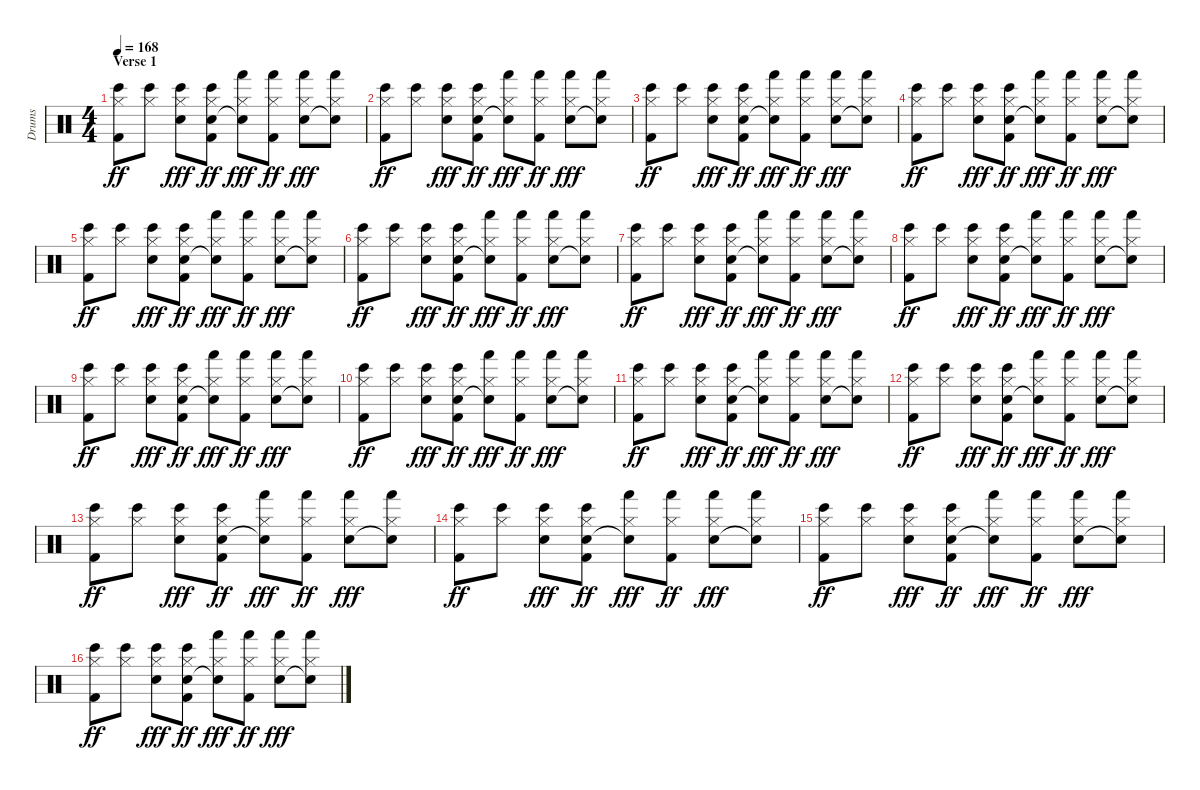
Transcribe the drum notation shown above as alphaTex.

\track ("Drums" "Drums") {instrument percussion}
\staff {score}
\articulation defaults
\ts (4 4)
\section ("" "Verse 1")
\tempo 168
\clef neutral
\ks c
("Bongo High (hit)" "Hi-Hat (closed)" "Kick (hit) 2").8{dy ff} ("Bongo High (hit)" "Hi-Hat (closed)").8 ("Bongo High (hit)" "Hi-Hat (closed)" "Electric Snare (hit)").8{dy fff} ("Bongo High (hit)" "Hi-Hat (closed)" "Electric Snare (hit)" "Kick (hit) 2").8{dy ff} ("Hand (hit)" "Hi-Hat (closed)" "Electric Snare (hit)"{t}).8{dy fff} ("Hand (hit)" "Hi-Hat (closed)" "Kick (hit) 2").8{dy ff} ("Hand (hit)" "Hi-Hat (closed)" "Electric Snare (hit)").8{dy fff} ("Hand (hit)" "Hi-Hat (closed)" "Snare (hit)"{t}).8 |
("Bongo High (hit)" "Hi-Hat (closed)" "Kick (hit) 2").8{dy ff} ("Bongo High (hit)" "Hi-Hat (closed)").8 ("Bongo High (hit)" "Hi-Hat (closed)" "Electric Snare (hit)").8{dy fff} ("Bongo High (hit)" "Hi-Hat (closed)" "Electric Snare (hit)" "Kick (hit) 2").8{dy ff} ("Hand (hit)" "Hi-Hat (closed)" "Electric Snare (hit)"{t}).8{dy fff} ("Hand (hit)" "Hi-Hat (closed)" "Kick (hit) 2").8{dy ff} ("Hand (hit)" "Hi-Hat (closed)" "Electric Snare (hit)").8{dy fff} ("Hand (hit)" "Hi-Hat (closed)" "Snare (hit)"{t}).8 |
("Bongo High (hit)" "Hi-Hat (closed)" "Kick (hit) 2").8{dy ff} ("Bongo High (hit)" "Hi-Hat (closed)").8 ("Bongo High (hit)" "Hi-Hat (closed)" "Electric Snare (hit)").8{dy fff} ("Bongo High (hit)" "Hi-Hat (closed)" "Electric Snare (hit)" "Kick (hit) 2").8{dy ff} ("Hand (hit)" "Hi-Hat (closed)" "Electric Snare (hit)"{t}).8{dy fff} ("Hand (hit)" "Hi-Hat (closed)" "Kick (hit) 2").8{dy ff} ("Hand (hit)" "Hi-Hat (closed)" "Electric Snare (hit)").8{dy fff} ("Hand (hit)" "Hi-Hat (closed)" "Snare (hit)"{t}).8 |
("Bongo High (hit)" "Hi-Hat (closed)" "Kick (hit) 2").8{dy ff} ("Bongo High (hit)" "Hi-Hat (closed)").8 ("Bongo High (hit)" "Hi-Hat (closed)" "Electric Snare (hit)").8{dy fff} ("Bongo High (hit)" "Hi-Hat (closed)" "Electric Snare (hit)" "Kick (hit) 2").8{dy ff} ("Hand (hit)" "Hi-Hat (closed)" "Electric Snare (hit)"{t}).8{dy fff} ("Hand (hit)" "Hi-Hat (closed)" "Kick (hit) 2").8{dy ff} ("Hand (hit)" "Hi-Hat (closed)" "Electric Snare (hit)").8{dy fff} ("Hand (hit)" "Hi-Hat (closed)" "Snare (hit)"{t}).8 |
("Bongo High (hit)" "Hi-Hat (closed)" "Kick (hit) 2").8{dy ff} ("Bongo High (hit)" "Hi-Hat (closed)").8 ("Bongo High (hit)" "Hi-Hat (closed)" "Electric Snare (hit)").8{dy fff} ("Bongo High (hit)" "Hi-Hat (closed)" "Electric Snare (hit)" "Kick (hit) 2").8{dy ff} ("Hand (hit)" "Hi-Hat (closed)" "Electric Snare (hit)"{t}).8{dy fff} ("Hand (hit)" "Hi-Hat (closed)" "Kick (hit) 2").8{dy ff} ("Hand (hit)" "Hi-Hat (closed)" "Electric Snare (hit)").8{dy fff} ("Hand (hit)" "Hi-Hat (closed)" "Snare (hit)"{t}).8 |
("Bongo High (hit)" "Hi-Hat (closed)" "Kick (hit) 2").8{dy ff} ("Bongo High (hit)" "Hi-Hat (closed)").8 ("Bongo High (hit)" "Hi-Hat (closed)" "Electric Snare (hit)").8{dy fff} ("Bongo High (hit)" "Hi-Hat (closed)" "Electric Snare (hit)" "Kick (hit) 2").8{dy ff} ("Hand (hit)" "Hi-Hat (closed)" "Electric Snare (hit)"{t}).8{dy fff} ("Hand (hit)" "Hi-Hat (closed)" "Kick (hit) 2").8{dy ff} ("Hand (hit)" "Hi-Hat (closed)" "Electric Snare (hit)").8{dy fff} ("Hand (hit)" "Hi-Hat (closed)" "Snare (hit)"{t}).8 |
("Bongo High (hit)" "Hi-Hat (closed)" "Kick (hit) 2").8{dy ff} ("Bongo High (hit)" "Hi-Hat (closed)").8 ("Bongo High (hit)" "Hi-Hat (closed)" "Electric Snare (hit)").8{dy fff} ("Bongo High (hit)" "Hi-Hat (closed)" "Electric Snare (hit)" "Kick (hit) 2").8{dy ff} ("Hand (hit)" "Hi-Hat (closed)" "Electric Snare (hit)"{t}).8{dy fff} ("Hand (hit)" "Hi-Hat (closed)" "Kick (hit) 2").8{dy ff} ("Hand (hit)" "Hi-Hat (closed)" "Electric Snare (hit)").8{dy fff} ("Hand (hit)" "Hi-Hat (closed)" "Snare (hit)"{t}).8 |
("Bongo High (hit)" "Hi-Hat (closed)" "Kick (hit) 2").8{dy ff} ("Bongo High (hit)" "Hi-Hat (closed)").8 ("Bongo High (hit)" "Hi-Hat (closed)" "Electric Snare (hit)").8{dy fff} ("Bongo High (hit)" "Hi-Hat (closed)" "Electric Snare (hit)" "Kick (hit) 2").8{dy ff} ("Hand (hit)" "Hi-Hat (closed)" "Electric Snare (hit)"{t}).8{dy fff} ("Hand (hit)" "Hi-Hat (closed)" "Kick (hit) 2").8{dy ff} ("Hand (hit)" "Hi-Hat (closed)" "Electric Snare (hit)").8{dy fff} ("Hand (hit)" "Hi-Hat (closed)" "Snare (hit)"{t}).8 |
("Bongo High (hit)" "Hi-Hat (closed)" "Kick (hit) 2").8{dy ff} ("Bongo High (hit)" "Hi-Hat (closed)").8 ("Bongo High (hit)" "Hi-Hat (closed)" "Electric Snare (hit)").8{dy fff} ("Bongo High (hit)" "Hi-Hat (closed)" "Electric Snare (hit)" "Kick (hit) 2").8{dy ff} ("Hand (hit)" "Hi-Hat (closed)" "Electric Snare (hit)"{t}).8{dy fff} ("Hand (hit)" "Hi-Hat (closed)" "Kick (hit) 2").8{dy ff} ("Hand (hit)" "Hi-Hat (closed)" "Electric Snare (hit)").8{dy fff} ("Hand (hit)" "Hi-Hat (closed)" "Snare (hit)"{t}).8 |
("Bongo High (hit)" "Hi-Hat (closed)" "Kick (hit) 2").8{dy ff} ("Bongo High (hit)" "Hi-Hat (closed)").8 ("Bongo High (hit)" "Hi-Hat (closed)" "Electric Snare (hit)").8{dy fff} ("Bongo High (hit)" "Hi-Hat (closed)" "Electric Snare (hit)" "Kick (hit) 2").8{dy ff} ("Hand (hit)" "Hi-Hat (closed)" "Electric Snare (hit)"{t}).8{dy fff} ("Hand (hit)" "Hi-Hat (closed)" "Kick (hit) 2").8{dy ff} ("Hand (hit)" "Hi-Hat (closed)" "Electric Snare (hit)").8{dy fff} ("Hand (hit)" "Hi-Hat (closed)" "Snare (hit)"{t}).8 |
("Bongo High (hit)" "Hi-Hat (closed)" "Kick (hit) 2").8{dy ff} ("Bongo High (hit)" "Hi-Hat (closed)").8 ("Bongo High (hit)" "Hi-Hat (closed)" "Electric Snare (hit)").8{dy fff} ("Bongo High (hit)" "Hi-Hat (closed)" "Electric Snare (hit)" "Kick (hit) 2").8{dy ff} ("Hand (hit)" "Hi-Hat (closed)" "Electric Snare (hit)"{t}).8{dy fff} ("Hand (hit)" "Hi-Hat (closed)" "Kick (hit) 2").8{dy ff} ("Hand (hit)" "Hi-Hat (closed)" "Electric Snare (hit)").8{dy fff} ("Hand (hit)" "Hi-Hat (closed)" "Snare (hit)"{t}).8 |
("Bongo High (hit)" "Hi-Hat (closed)" "Kick (hit) 2").8{dy ff} ("Bongo High (hit)" "Hi-Hat (closed)").8 ("Bongo High (hit)" "Hi-Hat (closed)" "Electric Snare (hit)").8{dy fff} ("Bongo High (hit)" "Hi-Hat (closed)" "Electric Snare (hit)" "Kick (hit) 2").8{dy ff} ("Hand (hit)" "Hi-Hat (closed)" "Electric Snare (hit)"{t}).8{dy fff} ("Hand (hit)" "Hi-Hat (closed)" "Kick (hit) 2").8{dy ff} ("Hand (hit)" "Hi-Hat (closed)" "Electric Snare (hit)").8{dy fff} ("Hand (hit)" "Hi-Hat (closed)" "Snare (hit)"{t}).8 |
("Bongo High (hit)" "Hi-Hat (closed)" "Kick (hit) 2").8{dy ff} ("Bongo High (hit)" "Hi-Hat (closed)").8 ("Bongo High (hit)" "Hi-Hat (closed)" "Electric Snare (hit)").8{dy fff} ("Bongo High (hit)" "Hi-Hat (closed)" "Electric Snare (hit)" "Kick (hit) 2").8{dy ff} ("Hand (hit)" "Hi-Hat (closed)" "Electric Snare (hit)"{t}).8{dy fff} ("Hand (hit)" "Hi-Hat (closed)" "Kick (hit) 2").8{dy ff} ("Hand (hit)" "Hi-Hat (closed)" "Electric Snare (hit)").8{dy fff} ("Hand (hit)" "Hi-Hat (closed)" "Snare (hit)"{t}).8 |
("Bongo High (hit)" "Hi-Hat (closed)" "Kick (hit) 2").8{dy ff} ("Bongo High (hit)" "Hi-Hat (closed)").8 ("Bongo High (hit)" "Hi-Hat (closed)" "Electric Snare (hit)").8{dy fff} ("Bongo High (hit)" "Hi-Hat (closed)" "Electric Snare (hit)" "Kick (hit) 2").8{dy ff} ("Hand (hit)" "Hi-Hat (closed)" "Electric Snare (hit)"{t}).8{dy fff} ("Hand (hit)" "Hi-Hat (closed)" "Kick (hit) 2").8{dy ff} ("Hand (hit)" "Hi-Hat (closed)" "Electric Snare (hit)").8{dy fff} ("Hand (hit)" "Hi-Hat (closed)" "Snare (hit)"{t}).8 |
("Bongo High (hit)" "Hi-Hat (closed)" "Kick (hit) 2").8{dy ff} ("Bongo High (hit)" "Hi-Hat (closed)").8 ("Bongo High (hit)" "Hi-Hat (closed)" "Electric Snare (hit)").8{dy fff} ("Bongo High (hit)" "Hi-Hat (closed)" "Electric Snare (hit)" "Kick (hit) 2").8{dy ff} ("Hand (hit)" "Hi-Hat (closed)" "Electric Snare (hit)"{t}).8{dy fff} ("Hand (hit)" "Hi-Hat (closed)" "Kick (hit) 2").8{dy ff} ("Hand (hit)" "Hi-Hat (closed)" "Electric Snare (hit)").8{dy fff} ("Hand (hit)" "Hi-Hat (closed)" "Snare (hit)"{t}).8 |
("Bongo High (hit)" "Hi-Hat (closed)" "Kick (hit) 2").8{dy ff} ("Bongo High (hit)" "Hi-Hat (closed)").8 ("Bongo High (hit)" "Hi-Hat (closed)" "Electric Snare (hit)").8{dy fff} ("Bongo High (hit)" "Hi-Hat (closed)" "Electric Snare (hit)" "Kick (hit) 2").8{dy ff} ("Hand (hit)" "Hi-Hat (closed)" "Electric Snare (hit)"{t}).8{dy fff} ("Hand (hit)" "Hi-Hat (closed)" "Kick (hit) 2").8{dy ff} ("Hand (hit)" "Hi-Hat (closed)" "Electric Snare (hit)").8{dy fff} ("Hand (hit)" "Hi-Hat (closed)" "Snare (hit)"{t}).8
